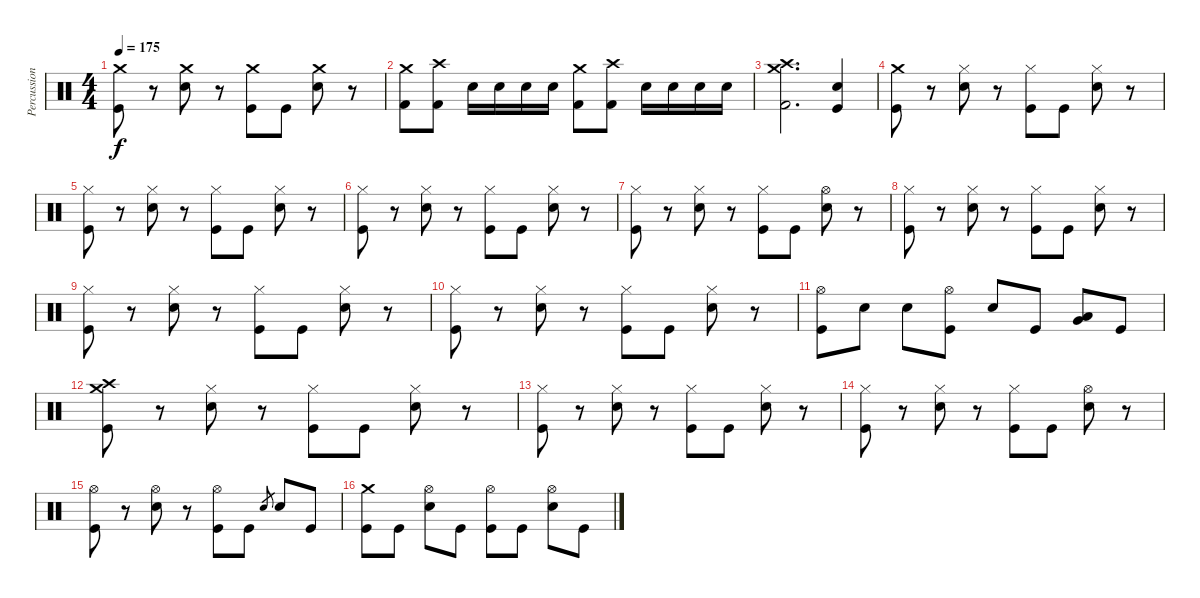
\track ("Percussion" "Percussion") {instrument percussion}
\staff {score}
\articulation defaults
\ts (4 4)
\tempo 175
\clef neutral
\ks c
("Crash medium (hit)" "Kick (hit)").8{dy f} r.8 ("Crash medium (hit)" "Electric Snare (hit)").8 r.8 ("Crash medium (hit)" "Kick (hit)").8 "Kick (hit)".8 ("Crash medium (hit)" "Electric Snare (hit)").8 r.8 |
("Crash medium (hit)" "Kick (hit) 2").8 ("Crash high (hit)" "Kick (hit) 2").8 "Electric Snare (hit)".16 "Electric Snare (hit)".16 "Electric Snare (hit)".16 "Electric Snare (hit)".16 ("Crash medium (hit)" "Kick (hit) 2").8 ("Crash high (hit)" "Kick (hit) 2").8 "Electric Snare (hit)".16 "Electric Snare (hit)".16 "Electric Snare (hit)".16 "Electric Snare (hit)".16 |
("Crash high (hit)" "Crash medium (hit)" "Kick (hit) 2").2{d} ("Electric Snare (hit)" "Kick (hit)").4 |
("Crash medium (hit)" "Kick (hit)").8 r.8 ("Hi-Hat (closed)" "Electric Snare (hit)").8 r.8 ("Hi-Hat (closed)" "Kick (hit)").8 "Kick (hit)".8 ("Hi-Hat (closed)" "Electric Snare (hit)").8 r.8 |
("Hi-Hat (closed)" "Kick (hit)").8 r.8 ("Hi-Hat (closed)" "Electric Snare (hit)").8 r.8 ("Hi-Hat (closed)" "Kick (hit)").8 "Kick (hit)".8 ("Hi-Hat (closed)" "Electric Snare (hit)").8 r.8 |
("Hi-Hat (closed)" "Kick (hit)").8 r.8 ("Hi-Hat (closed)" "Electric Snare (hit)").8 r.8 ("Hi-Hat (closed)" "Kick (hit)").8 "Kick (hit)".8 ("Hi-Hat (closed)" "Electric Snare (hit)").8 r.8 |
("Hi-Hat (closed)" "Kick (hit)").8 r.8 ("Hi-Hat (closed)" "Electric Snare (hit)").8 r.8 ("Hi-Hat (closed)" "Kick (hit)").8 "Kick (hit)".8 ("Hi-Hat (open)" "Electric Snare (hit)").8 r.8 |
("Hi-Hat (closed)" "Kick (hit)").8 r.8 ("Hi-Hat (closed)" "Electric Snare (hit)").8 r.8 ("Hi-Hat (closed)" "Kick (hit)").8 "Kick (hit)".8 ("Hi-Hat (closed)" "Electric Snare (hit)").8 r.8 |
("Hi-Hat (closed)" "Kick (hit)").8 r.8 ("Hi-Hat (closed)" "Electric Snare (hit)").8 r.8 ("Hi-Hat (closed)" "Kick (hit)").8 "Kick (hit)".8 ("Hi-Hat (closed)" "Electric Snare (hit)").8 r.8 |
("Hi-Hat (closed)" "Kick (hit)").8 r.8 ("Hi-Hat (closed)" "Electric Snare (hit)").8 r.8 ("Hi-Hat (closed)" "Kick (hit)").8 "Kick (hit)".8 ("Hi-Hat (closed)" "Electric Snare (hit)").8 r.8 |
("Hi-Hat (open)" "Kick (hit)").8 "Electric Snare (hit)".8 "Electric Snare (hit)".8 ("Hi-Hat (open)" "Kick (hit)").8 "Electric Snare (hit)".8 "Kick (hit)".8 ("Very Low Tom (hit)" "Low Tom (hit)").8 "Kick (hit)".8 |
("Crash high (hit)" "Crash medium (hit)" "Kick (hit)").8 r.8 ("Hi-Hat (closed)" "Electric Snare (hit)").8 r.8 ("Hi-Hat (closed)" "Kick (hit)").8 "Kick (hit)".8 ("Hi-Hat (closed)" "Electric Snare (hit)").8 r.8 |
("Hi-Hat (closed)" "Kick (hit)").8 r.8 ("Hi-Hat (closed)" "Electric Snare (hit)").8 r.8 ("Hi-Hat (closed)" "Kick (hit)").8 "Kick (hit)".8 ("Hi-Hat (closed)" "Electric Snare (hit)").8 r.8 |
("Hi-Hat (closed)" "Kick (hit)").8 r.8 ("Hi-Hat (closed)" "Electric Snare (hit)").8 r.8 ("Hi-Hat (closed)" "Kick (hit)").8 "Kick (hit)".8 ("Hi-Hat (open)" "Electric Snare (hit)").8 r.8 |
("Hi-Hat (open)" "Kick (hit)").8 r.8 ("Hi-Hat (open)" "Electric Snare (hit)").8 r.8 ("Hi-Hat (open)" "Kick (hit)").8 "Kick (hit)".8 "Electric Snare (hit)".8{gr} "Electric Snare (hit)".8 "Kick (hit)".8 |
("Crash medium (hit)" "Kick (hit)").8 "Kick (hit)".8 ("Hi-Hat (open)" "Electric Snare (hit)").8 "Kick (hit)".8 ("Hi-Hat (open)" "Kick (hit)").8 "Kick (hit)".8 ("Hi-Hat (open)" "Electric Snare (hit)").8 "Kick (hit)".8
